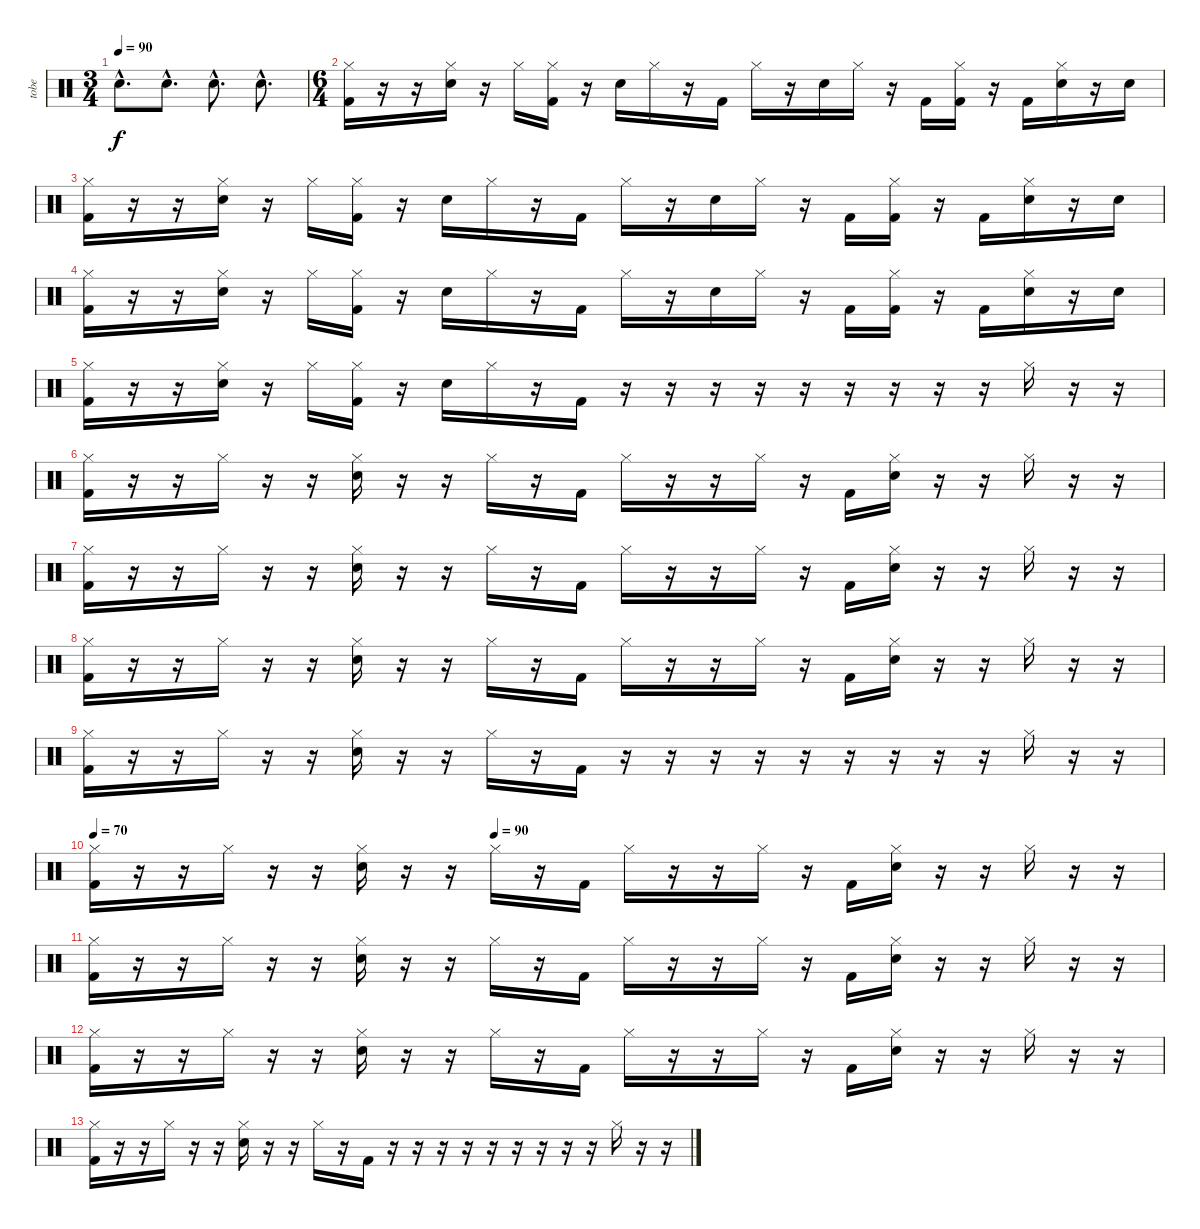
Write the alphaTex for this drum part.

\track ("tobe" "tobe") {instrument percussion}
\staff {score}
\articulation defaults
\ts (3 4)
\tempo 90
\clef neutral
\ks c "Snare (hit) 2"{hac}.8{d dy f} "Snare (hit) 2"{hac}.8{d} "Snare (hit) 2"{hac}.8{d} "Snare (hit) 2"{hac}.8{d}
|
\ts (6 4)
("Hi-Hat (closed)" "Kick (hit) 2").16 r.16 r.16 ("Hi-Hat (closed)" "Snare (hit) 2").16 r.16 "Hi-Hat (closed)".16 ("Hi-Hat (closed)" "Kick (hit) 2").16 r.16 "Snare (hit) 2".16 "Hi-Hat (closed)".16 r.16 "Kick (hit) 2".16 "Hi-Hat (closed)".16 r.16 "Snare (hit) 2".16 "Hi-Hat (closed)".16 r.16 "Kick (hit) 2".16 ("Hi-Hat (closed)" "Kick (hit) 2").16 r.16 "Kick (hit) 2".16 ("Hi-Hat (closed)" "Snare (hit) 2").16 r.16 "Snare (hit) 2".16 |
("Hi-Hat (closed)" "Kick (hit) 2").16 r.16 r.16 ("Hi-Hat (closed)" "Snare (hit) 2").16 r.16 "Hi-Hat (closed)".16 ("Hi-Hat (closed)" "Kick (hit) 2").16 r.16 "Snare (hit) 2".16 "Hi-Hat (closed)".16 r.16 "Kick (hit) 2".16 "Hi-Hat (closed)".16 r.16 "Snare (hit) 2".16 "Hi-Hat (closed)".16 r.16 "Kick (hit) 2".16 ("Hi-Hat (closed)" "Kick (hit) 2").16 r.16 "Kick (hit) 2".16 ("Hi-Hat (closed)" "Snare (hit) 2").16 r.16 "Snare (hit) 2".16 |
("Hi-Hat (closed)" "Kick (hit) 2").16 r.16 r.16 ("Hi-Hat (closed)" "Snare (hit) 2").16 r.16 "Hi-Hat (closed)".16 ("Hi-Hat (closed)" "Kick (hit) 2").16 r.16 "Snare (hit) 2".16 "Hi-Hat (closed)".16 r.16 "Kick (hit) 2".16 "Hi-Hat (closed)".16 r.16 "Snare (hit) 2".16 "Hi-Hat (closed)".16 r.16 "Kick (hit) 2".16 ("Hi-Hat (closed)" "Kick (hit) 2").16 r.16 "Kick (hit) 2".16 ("Hi-Hat (closed)" "Snare (hit) 2").16 r.16 "Snare (hit) 2".16 |
("Hi-Hat (closed)" "Kick (hit) 2").16 r.16 r.16 ("Hi-Hat (closed)" "Snare (hit) 2").16 r.16 "Hi-Hat (closed)".16 ("Hi-Hat (closed)" "Kick (hit) 2").16 r.16 "Snare (hit) 2".16 "Hi-Hat (closed)".16 r.16 "Kick (hit) 2".16 r.16 r.16 r.16 r.16 r.16 r.16 r.16 r.16 r.16 "Hi-Hat (closed)".16 r.16 r.16 |
("Hi-Hat (closed)" "Kick (hit) 2").16 r.16 r.16 "Hi-Hat (closed)".16 r.16 r.16 ("Hi-Hat (closed)" "Snare (hit) 2").16 r.16 r.16 "Hi-Hat (closed)".16 r.16 "Kick (hit) 2".16 "Hi-Hat (closed)".16 r.16 r.16 "Hi-Hat (closed)".16 r.16 "Kick (hit) 2".16 ("Hi-Hat (closed)" "Snare (hit) 2").16 r.16 r.16 "Hi-Hat (closed)".16 r.16 r.16 |
("Hi-Hat (closed)" "Kick (hit) 2").16 r.16 r.16 "Hi-Hat (closed)".16 r.16 r.16 ("Hi-Hat (closed)" "Snare (hit) 2").16 r.16 r.16 "Hi-Hat (closed)".16 r.16 "Kick (hit) 2".16 "Hi-Hat (closed)".16 r.16 r.16 "Hi-Hat (closed)".16 r.16 "Kick (hit) 2".16 ("Hi-Hat (closed)" "Snare (hit) 2").16 r.16 r.16 "Hi-Hat (closed)".16 r.16 r.16 |
("Hi-Hat (closed)" "Kick (hit) 2").16 r.16 r.16 "Hi-Hat (closed)".16 r.16 r.16 ("Hi-Hat (closed)" "Snare (hit) 2").16 r.16 r.16 "Hi-Hat (closed)".16 r.16 "Kick (hit) 2".16 "Hi-Hat (closed)".16 r.16 r.16 "Hi-Hat (closed)".16 r.16 "Kick (hit) 2".16 ("Hi-Hat (closed)" "Snare (hit) 2").16 r.16 r.16 "Hi-Hat (closed)".16 r.16 r.16 |
("Hi-Hat (closed)" "Kick (hit) 2").16 r.16 r.16 "Hi-Hat (closed)".16 r.16 r.16 ("Hi-Hat (closed)" "Snare (hit) 2").16 r.16 r.16 "Hi-Hat (closed)".16 r.16 "Kick (hit) 2".16 r.16 r.16 r.16 r.16 r.16 r.16 r.16 r.16 r.16 "Hi-Hat (closed)".16 r.16 r.16 |
\tempo 70
\tempo (90 0.375)
("Hi-Hat (closed)" "Kick (hit) 2").16 r.16 r.16 "Hi-Hat (closed)".16 r.16 r.16 ("Hi-Hat (closed)" "Snare (hit) 2").16 r.16 r.16 "Hi-Hat (closed)".16 r.16 "Kick (hit) 2".16 "Hi-Hat (closed)".16 r.16 r.16 "Hi-Hat (closed)".16 r.16 "Kick (hit) 2".16 ("Hi-Hat (closed)" "Snare (hit) 2").16 r.16 r.16 "Hi-Hat (closed)".16 r.16 r.16 |
("Hi-Hat (closed)" "Kick (hit) 2").16 r.16 r.16 "Hi-Hat (closed)".16 r.16 r.16 ("Hi-Hat (closed)" "Snare (hit) 2").16 r.16 r.16 "Hi-Hat (closed)".16 r.16 "Kick (hit) 2".16 "Hi-Hat (closed)".16 r.16 r.16 "Hi-Hat (closed)".16 r.16 "Kick (hit) 2".16 ("Hi-Hat (closed)" "Snare (hit) 2").16 r.16 r.16 "Hi-Hat (closed)".16 r.16 r.16 |
("Hi-Hat (closed)" "Kick (hit) 2").16 r.16 r.16 "Hi-Hat (closed)".16 r.16 r.16 ("Hi-Hat (closed)" "Snare (hit) 2").16 r.16 r.16 "Hi-Hat (closed)".16 r.16 "Kick (hit) 2".16 "Hi-Hat (closed)".16 r.16 r.16 "Hi-Hat (closed)".16 r.16 "Kick (hit) 2".16 ("Hi-Hat (closed)" "Snare (hit) 2").16 r.16 r.16 "Hi-Hat (closed)".16 r.16 r.16 |
("Hi-Hat (closed)" "Kick (hit) 2").16 r.16 r.16 "Hi-Hat (closed)".16 r.16 r.16 ("Hi-Hat (closed)" "Snare (hit) 2").16 r.16 r.16 "Hi-Hat (closed)".16 r.16 "Kick (hit) 2".16 r.16 r.16 r.16 r.16 r.16 r.16 r.16 r.16 r.16 "Hi-Hat (closed)".16 r.16 r.16
